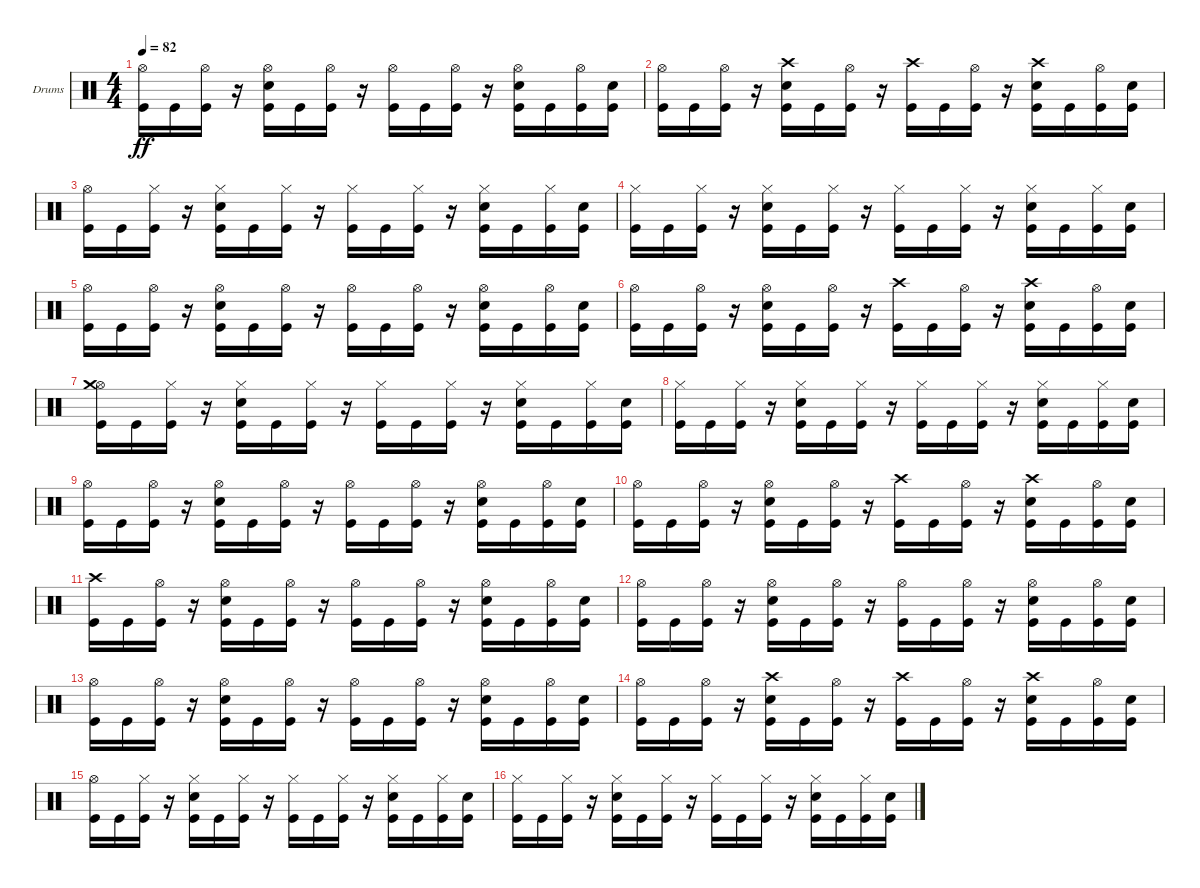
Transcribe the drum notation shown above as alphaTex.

\bracketExtendMode groupsimilarinstruments
\firstSystemTrackNameOrientation horizontal
\otherSystemsTrackNameOrientation horizontal
\track ("Drumkit" "Drums") {instrument percussion}
\staff {score}
\articulation defaults
\ts (4 4)
\tempo 82
\clef neutral
\ks c
("Kick (hit)" "Hi-Hat (open)").16{dy ff} "Kick (hit)".16 ("Kick (hit)" "Hi-Hat (open)").16 r.16 ("Kick (hit)" "Snare (hit) 2" "Hi-Hat (open)").16 "Kick (hit)".16 ("Kick (hit)" "Hi-Hat (open)").16 r.16 ("Kick (hit)" "Hi-Hat (open)").16 "Kick (hit)".16 ("Kick (hit)" "Hi-Hat (open)").16 r.16 ("Kick (hit)" "Snare (hit) 2" "Hi-Hat (open)").16 "Kick (hit)".16 ("Kick (hit)" "Hi-Hat (open)").16 ("Kick (hit)" "Snare (hit) 2").16 |
("Kick (hit)" "Hi-Hat (open)").16 "Kick (hit)".16 ("Kick (hit)" "Hi-Hat (open)").16 r.16 ("Kick (hit)" "Snare (hit) 2" "Crash high (hit)").16 "Kick (hit)".16 ("Kick (hit)" "Hi-Hat (open)").16 r.16 ("Kick (hit)" "Crash high (hit)").16 "Kick (hit)".16 ("Kick (hit)" "Hi-Hat (open)").16 r.16 ("Kick (hit)" "Snare (hit) 2" "Crash high (hit)").16 "Kick (hit)".16 ("Kick (hit)" "Hi-Hat (open)").16 ("Kick (hit)" "Snare (hit) 2").16 |
("Kick (hit)" "Hi-Hat (open)").16 "Kick (hit)".16 ("Kick (hit)" "Hi-Hat (closed)").16 r.16 ("Kick (hit)" "Snare (hit) 2" "Hi-Hat (closed)").16 "Kick (hit)".16 ("Kick (hit)" "Hi-Hat (closed)").16 r.16 ("Kick (hit)" "Hi-Hat (closed)").16 "Kick (hit)".16 ("Kick (hit)" "Hi-Hat (closed)").16 r.16 ("Kick (hit)" "Snare (hit) 2" "Hi-Hat (closed)").16 "Kick (hit)".16 ("Kick (hit)" "Hi-Hat (closed)").16 ("Kick (hit)" "Snare (hit) 2").16 |
("Kick (hit)" "Hi-Hat (closed)").16 "Kick (hit)".16 ("Kick (hit)" "Hi-Hat (closed)").16 r.16 ("Kick (hit)" "Snare (hit) 2" "Hi-Hat (closed)").16 "Kick (hit)".16 ("Kick (hit)" "Hi-Hat (closed)").16 r.16 ("Kick (hit)" "Hi-Hat (closed)").16 "Kick (hit)".16 ("Kick (hit)" "Hi-Hat (closed)").16 r.16 ("Kick (hit)" "Snare (hit) 2" "Hi-Hat (closed)").16 "Kick (hit)".16 ("Kick (hit)" "Hi-Hat (closed)").16 ("Kick (hit)" "Snare (hit) 2").16 |
("Kick (hit)" "Hi-Hat (open)").16 "Kick (hit)".16 ("Kick (hit)" "Hi-Hat (open)").16 r.16 ("Kick (hit)" "Snare (hit) 2" "Hi-Hat (open)").16 "Kick (hit)".16 ("Kick (hit)" "Hi-Hat (open)").16 r.16 ("Kick (hit)" "Hi-Hat (open)").16 "Kick (hit)".16 ("Kick (hit)" "Hi-Hat (open)").16 r.16 ("Kick (hit)" "Snare (hit) 2" "Hi-Hat (open)").16 "Kick (hit)".16 ("Kick (hit)" "Hi-Hat (open)").16 ("Kick (hit)" "Snare (hit) 2").16 |
("Kick (hit)" "Hi-Hat (open)").16 "Kick (hit)".16 ("Kick (hit)" "Hi-Hat (open)").16 r.16 ("Kick (hit)" "Snare (hit) 2" "Hi-Hat (open)").16 "Kick (hit)".16 ("Kick (hit)" "Hi-Hat (open)").16 r.16 ("Kick (hit)" "Crash high (hit)").16 "Kick (hit)".16 ("Kick (hit)" "Hi-Hat (open)").16 r.16 ("Kick (hit)" "Snare (hit) 2" "Crash high (hit)").16 "Kick (hit)".16 ("Kick (hit)" "Hi-Hat (open)").16 ("Kick (hit)" "Snare (hit) 2").16 |
("Kick (hit)" "Hi-Hat (open)" "Crash medium (hit)").16 "Kick (hit)".16 ("Kick (hit)" "Hi-Hat (closed)").16 r.16 ("Kick (hit)" "Snare (hit) 2" "Hi-Hat (closed)").16 "Kick (hit)".16 ("Kick (hit)" "Hi-Hat (closed)").16 r.16 ("Kick (hit)" "Hi-Hat (closed)").16 "Kick (hit)".16 ("Kick (hit)" "Hi-Hat (closed)").16 r.16 ("Kick (hit)" "Snare (hit) 2" "Hi-Hat (closed)").16 "Kick (hit)".16 ("Kick (hit)" "Hi-Hat (closed)").16 ("Kick (hit)" "Snare (hit) 2").16 |
("Kick (hit)" "Hi-Hat (closed)").16 "Kick (hit)".16 ("Kick (hit)" "Hi-Hat (closed)").16 r.16 ("Kick (hit)" "Snare (hit) 2" "Hi-Hat (closed)").16 "Kick (hit)".16 ("Kick (hit)" "Hi-Hat (closed)").16 r.16 ("Kick (hit)" "Hi-Hat (closed)").16 "Kick (hit)".16 ("Kick (hit)" "Hi-Hat (closed)").16 r.16 ("Kick (hit)" "Snare (hit) 2" "Hi-Hat (closed)").16 "Kick (hit)".16 ("Kick (hit)" "Hi-Hat (closed)").16 ("Kick (hit)" "Snare (hit) 2").16 |
("Kick (hit)" "Hi-Hat (open)").16 "Kick (hit)".16 ("Kick (hit)" "Hi-Hat (open)").16 r.16 ("Kick (hit)" "Snare (hit) 2" "Hi-Hat (open)").16 "Kick (hit)".16 ("Kick (hit)" "Hi-Hat (open)").16 r.16 ("Kick (hit)" "Hi-Hat (open)").16 "Kick (hit)".16 ("Kick (hit)" "Hi-Hat (open)").16 r.16 ("Kick (hit)" "Snare (hit) 2" "Hi-Hat (open)").16 "Kick (hit)".16 ("Kick (hit)" "Hi-Hat (open)").16 ("Kick (hit)" "Snare (hit) 2").16 |
("Kick (hit)" "Hi-Hat (open)").16 "Kick (hit)".16 ("Kick (hit)" "Hi-Hat (open)").16 r.16 ("Kick (hit)" "Snare (hit) 2" "Hi-Hat (open)").16 "Kick (hit)".16 ("Kick (hit)" "Hi-Hat (open)").16 r.16 ("Kick (hit)" "Crash high (hit)").16 "Kick (hit)".16 ("Kick (hit)" "Hi-Hat (open)").16 r.16 ("Kick (hit)" "Snare (hit) 2" "Crash high (hit)").16 "Kick (hit)".16 ("Kick (hit)" "Hi-Hat (open)").16 ("Kick (hit)" "Snare (hit) 2").16 |
("Kick (hit)" "Crash high (hit)").16 "Kick (hit)".16 ("Kick (hit)" "Hi-Hat (open)").16 r.16 ("Kick (hit)" "Snare (hit) 2" "Hi-Hat (open)").16 "Kick (hit)".16 ("Kick (hit)" "Hi-Hat (open)").16 r.16 ("Kick (hit)" "Hi-Hat (open)").16 "Kick (hit)".16 ("Kick (hit)" "Hi-Hat (open)").16 r.16 ("Kick (hit)" "Snare (hit) 2" "Hi-Hat (open)").16 "Kick (hit)".16 ("Kick (hit)" "Hi-Hat (open)").16 ("Kick (hit)" "Snare (hit) 2").16 |
("Kick (hit)" "Hi-Hat (open)").16 "Kick (hit)".16 ("Kick (hit)" "Hi-Hat (open)").16 r.16 ("Kick (hit)" "Snare (hit) 2" "Hi-Hat (open)").16 "Kick (hit)".16 ("Kick (hit)" "Hi-Hat (open)").16 r.16 ("Kick (hit)" "Hi-Hat (open)").16 "Kick (hit)".16 ("Kick (hit)" "Hi-Hat (open)").16 r.16 ("Kick (hit)" "Snare (hit) 2" "Hi-Hat (open)").16 "Kick (hit)".16 ("Kick (hit)" "Hi-Hat (open)").16 ("Kick (hit)" "Snare (hit) 2").16 |
("Kick (hit)" "Hi-Hat (open)").16 "Kick (hit)".16 ("Kick (hit)" "Hi-Hat (open)").16 r.16 ("Kick (hit)" "Snare (hit) 2" "Hi-Hat (open)").16 "Kick (hit)".16 ("Kick (hit)" "Hi-Hat (open)").16 r.16 ("Kick (hit)" "Hi-Hat (open)").16 "Kick (hit)".16 ("Kick (hit)" "Hi-Hat (open)").16 r.16 ("Kick (hit)" "Snare (hit) 2" "Hi-Hat (open)").16 "Kick (hit)".16 ("Kick (hit)" "Hi-Hat (open)").16 ("Kick (hit)" "Snare (hit) 2").16 |
("Kick (hit)" "Hi-Hat (open)").16 "Kick (hit)".16 ("Kick (hit)" "Hi-Hat (open)").16 r.16 ("Kick (hit)" "Snare (hit) 2" "Crash high (hit)").16 "Kick (hit)".16 ("Kick (hit)" "Hi-Hat (open)").16 r.16 ("Kick (hit)" "Crash high (hit)").16 "Kick (hit)".16 ("Kick (hit)" "Hi-Hat (open)").16 r.16 ("Kick (hit)" "Snare (hit) 2" "Crash high (hit)").16 "Kick (hit)".16 ("Kick (hit)" "Hi-Hat (open)").16 ("Kick (hit)" "Snare (hit) 2").16 |
("Kick (hit)" "Hi-Hat (open)").16 "Kick (hit)".16 ("Kick (hit)" "Hi-Hat (closed)").16 r.16 ("Kick (hit)" "Snare (hit) 2" "Hi-Hat (closed)").16 "Kick (hit)".16 ("Kick (hit)" "Hi-Hat (closed)").16 r.16 ("Kick (hit)" "Hi-Hat (closed)").16 "Kick (hit)".16 ("Kick (hit)" "Hi-Hat (closed)").16 r.16 ("Kick (hit)" "Snare (hit) 2" "Hi-Hat (closed)").16 "Kick (hit)".16 ("Kick (hit)" "Hi-Hat (closed)").16 ("Kick (hit)" "Snare (hit) 2").16 |
("Kick (hit)" "Hi-Hat (closed)").16 "Kick (hit)".16 ("Kick (hit)" "Hi-Hat (closed)").16 r.16 ("Kick (hit)" "Snare (hit) 2" "Hi-Hat (closed)").16 "Kick (hit)".16 ("Kick (hit)" "Hi-Hat (closed)").16 r.16 ("Kick (hit)" "Hi-Hat (closed)").16 "Kick (hit)".16 ("Kick (hit)" "Hi-Hat (closed)").16 r.16 ("Kick (hit)" "Snare (hit) 2" "Hi-Hat (closed)").16 "Kick (hit)".16 ("Kick (hit)" "Hi-Hat (closed)").16 ("Kick (hit)" "Snare (hit) 2").16
